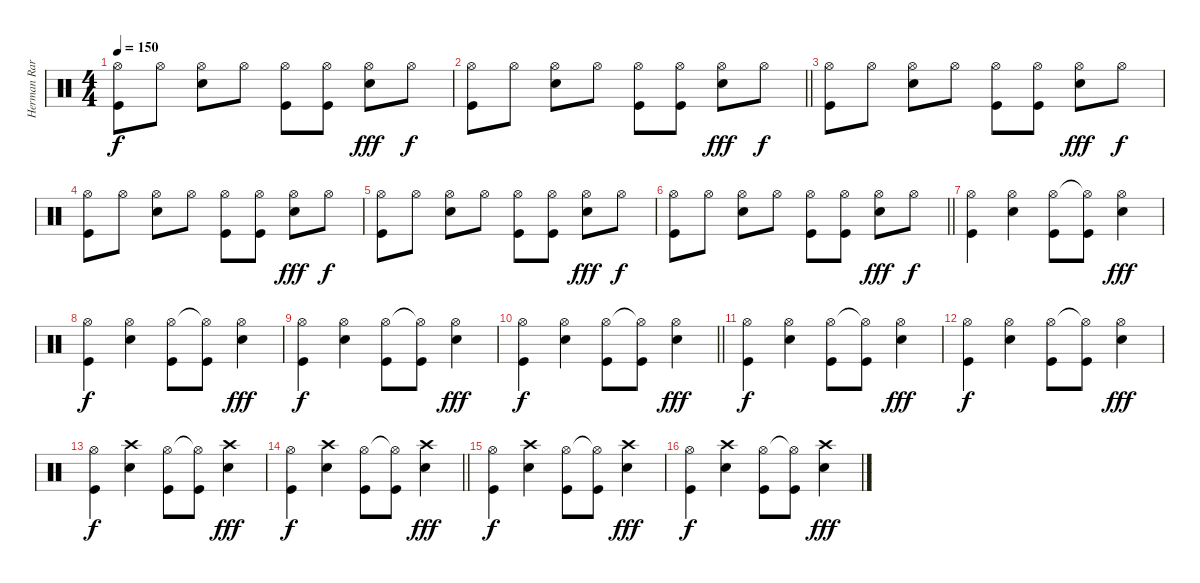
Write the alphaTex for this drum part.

\track ("Herman Rarebell" "Herman Rar") {instrument percussion}
\staff {score}
\articulation defaults
\ts (4 4)
\tempo 150
\clef neutral
\ks c
("Hi-Hat (open)" "Kick (hit)").8{dy f} "Hi-Hat (open)".8 ("Hi-Hat (open)" "Snare (hit) 2").8 "Hi-Hat (open)".8 ("Hi-Hat (open)" "Kick (hit)").8 ("Hi-Hat (open)" "Kick (hit)").8 ("Hi-Hat (open)" "Snare (hit) 2").8{dy fff} "Hi-Hat (open)".8{dy f} |
\barLineRight lightlight
("Hi-Hat (open)" "Kick (hit)").8 "Hi-Hat (open)".8 ("Hi-Hat (open)" "Snare (hit) 2").8 "Hi-Hat (open)".8 ("Hi-Hat (open)" "Kick (hit)").8 ("Hi-Hat (open)" "Kick (hit)").8 ("Hi-Hat (open)" "Snare (hit) 2").8{dy fff} "Hi-Hat (open)".8{dy f} |
("Hi-Hat (open)" "Kick (hit)").8 "Hi-Hat (open)".8 ("Hi-Hat (open)" "Snare (hit) 2").8 "Hi-Hat (open)".8 ("Hi-Hat (open)" "Kick (hit)").8 ("Hi-Hat (open)" "Kick (hit)").8 ("Hi-Hat (open)" "Snare (hit) 2").8{dy fff} "Hi-Hat (open)".8{dy f} |
("Hi-Hat (open)" "Kick (hit)").8 "Hi-Hat (open)".8 ("Hi-Hat (open)" "Snare (hit) 2").8 "Hi-Hat (open)".8 ("Hi-Hat (open)" "Kick (hit)").8 ("Hi-Hat (open)" "Kick (hit)").8 ("Hi-Hat (open)" "Snare (hit) 2").8{dy fff} "Hi-Hat (open)".8{dy f} |
("Hi-Hat (open)" "Kick (hit)").8 "Hi-Hat (open)".8 ("Hi-Hat (open)" "Snare (hit) 2").8 "Hi-Hat (open)".8 ("Hi-Hat (open)" "Kick (hit)").8 ("Hi-Hat (open)" "Kick (hit)").8 ("Hi-Hat (open)" "Snare (hit) 2").8{dy fff} "Hi-Hat (open)".8{dy f} |
\barLineRight lightlight
("Hi-Hat (open)" "Kick (hit)").8 "Hi-Hat (open)".8 ("Hi-Hat (open)" "Snare (hit) 2").8 "Hi-Hat (open)".8 ("Hi-Hat (open)" "Kick (hit)").8 ("Hi-Hat (open)" "Kick (hit)").8 ("Hi-Hat (open)" "Snare (hit) 2").8{dy fff} "Hi-Hat (open)".8{dy f} |
("Hi-Hat (open)" "Kick (hit)").4 ("Hi-Hat (open)" "Snare (hit) 2").4 ("Hi-Hat (open)" "Kick (hit)").8 ("Hi-Hat (open)"{t} "Kick (hit)").8 ("Hi-Hat (open)" "Snare (hit) 2").4{dy fff} |
("Hi-Hat (open)" "Kick (hit)").4{dy f} ("Hi-Hat (open)" "Snare (hit) 2").4 ("Hi-Hat (open)" "Kick (hit)").8 ("Hi-Hat (open)"{t} "Kick (hit)").8 ("Hi-Hat (open)" "Snare (hit) 2").4{dy fff} |
("Hi-Hat (open)" "Kick (hit)").4{dy f} ("Hi-Hat (open)" "Snare (hit) 2").4 ("Hi-Hat (open)" "Kick (hit)").8 ("Hi-Hat (open)"{t} "Kick (hit)").8 ("Hi-Hat (open)" "Snare (hit) 2").4{dy fff} |
\barLineRight lightlight
("Hi-Hat (open)" "Kick (hit)").4{dy f} ("Hi-Hat (open)" "Snare (hit) 2").4 ("Hi-Hat (open)" "Kick (hit)").8 ("Hi-Hat (open)"{t} "Kick (hit)").8 ("Hi-Hat (open)" "Snare (hit) 2").4{dy fff} |
("Hi-Hat (open)" "Kick (hit)").4{dy f} ("Hi-Hat (open)" "Snare (hit) 2").4 ("Hi-Hat (open)" "Kick (hit)").8 ("Hi-Hat (open)"{t} "Kick (hit)").8 ("Hi-Hat (open)" "Snare (hit) 2").4{dy fff} |
("Hi-Hat (open)" "Kick (hit)").4{dy f} ("Hi-Hat (open)" "Snare (hit) 2").4 ("Hi-Hat (open)" "Kick (hit)").8 ("Hi-Hat (open)"{t} "Kick (hit)").8 ("Hi-Hat (open)" "Snare (hit) 2").4{dy fff} |
("Hi-Hat (open)" "Kick (hit)").4{dy f} ("Crash high (hit)" "Snare (hit) 2").4 ("Hi-Hat (open)" "Kick (hit)").8 ("Hi-Hat (open)"{t} "Kick (hit)").8 ("Crash high (hit)" "Snare (hit) 2").4{dy fff} |
\barLineRight lightlight
("Hi-Hat (open)" "Kick (hit)").4{dy f} ("Crash high (hit)" "Snare (hit) 2").4 ("Hi-Hat (open)" "Kick (hit)").8 ("Hi-Hat (open)"{t} "Kick (hit)").8 ("Crash high (hit)" "Snare (hit) 2").4{dy fff} |
("Hi-Hat (open)" "Kick (hit)").4{dy f} ("Crash high (hit)" "Snare (hit) 2").4 ("Hi-Hat (open)" "Kick (hit)").8 ("Hi-Hat (open)"{t} "Kick (hit)").8 ("Crash high (hit)" "Snare (hit) 2").4{dy fff} |
("Hi-Hat (open)" "Kick (hit)").4{dy f} ("Crash high (hit)" "Snare (hit) 2").4 ("Hi-Hat (open)" "Kick (hit)").8 ("Hi-Hat (open)"{t} "Kick (hit)").8 ("Crash high (hit)" "Snare (hit) 2").4{dy fff}
